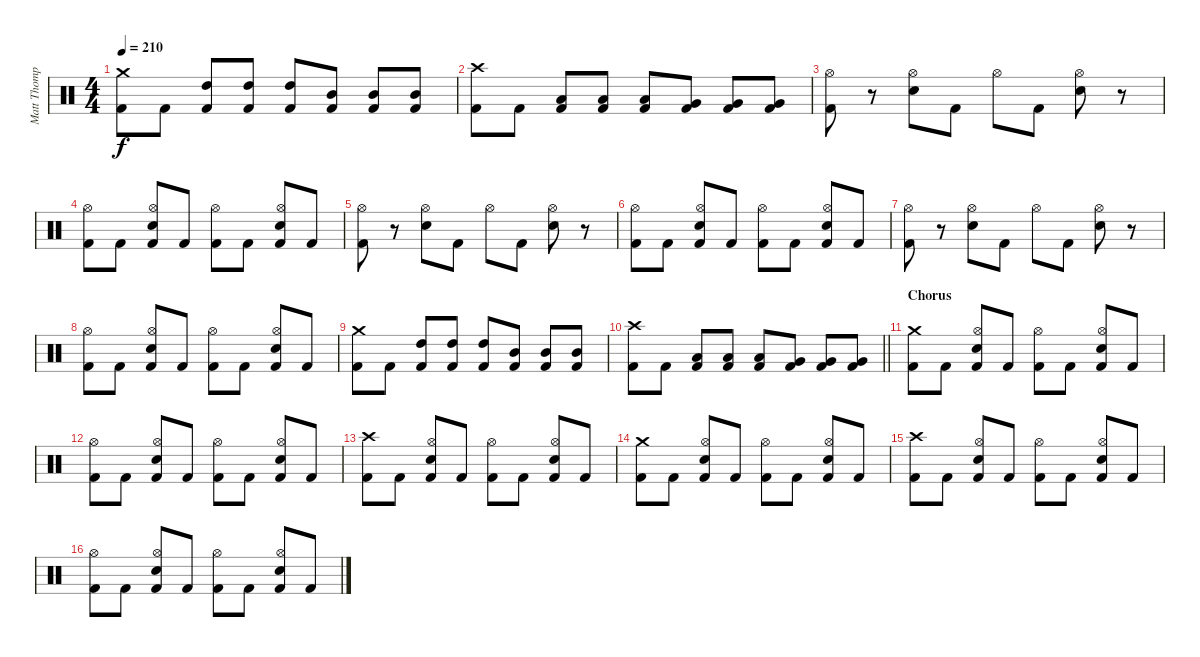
\track ("Matt Thompson" "Matt Thomp") {instrument percussion}
\staff {score}
\articulation defaults
\ts (4 4)
\tempo 210
\clef neutral
\ks c
("Crash medium (hit)" "Kick (hit) 2").8{dy f} "Kick (hit) 2".8 ("High Tom (hit)" "Kick (hit) 2").8 ("High Tom (hit)" "Kick (hit) 2").8 ("High Tom (hit)" "Kick (hit) 2").8 ("Mid Tom (hit)" "Kick (hit) 2").8 ("Mid Tom (hit)" "Kick (hit) 2").8 ("Mid Tom (hit)" "Kick (hit) 2").8 |
("Crash high (hit)" "Kick (hit) 2").8 "Kick (hit) 2".8 ("Low Tom (hit)" "Kick (hit) 2").8 ("Low Tom (hit)" "Kick (hit) 2").8 ("Low Tom (hit)" "Kick (hit) 2").8 ("Very Low Tom (hit)" "Kick (hit) 2").8 ("Very Low Tom (hit)" "Kick (hit) 2").8 ("Very Low Tom (hit)" "Kick (hit) 2").8 |
("Hi-Hat (open)" "Kick (hit) 2").8 r.8 ("Hi-Hat (open)" "Electric Snare (hit)").8 "Kick (hit) 2".8 "Hi-Hat (open)".8 "Kick (hit) 2".8 ("Hi-Hat (open)" "Electric Snare (hit)").8 r.8 |
("Hi-Hat (open)" "Kick (hit) 2").8 "Kick (hit) 2".8 ("Hi-Hat (open)" "Electric Snare (hit)" "Kick (hit) 2").8 "Kick (hit) 2".8 ("Hi-Hat (open)" "Kick (hit) 2").8 "Kick (hit) 2".8 ("Hi-Hat (open)" "Electric Snare (hit)" "Kick (hit) 2").8 "Kick (hit) 2".8 |
("Hi-Hat (open)" "Kick (hit) 2").8 r.8 ("Hi-Hat (open)" "Electric Snare (hit)").8 "Kick (hit) 2".8 "Hi-Hat (open)".8 "Kick (hit) 2".8 ("Hi-Hat (open)" "Electric Snare (hit)").8 r.8 |
("Hi-Hat (open)" "Kick (hit) 2").8 "Kick (hit) 2".8 ("Hi-Hat (open)" "Electric Snare (hit)" "Kick (hit) 2").8 "Kick (hit) 2".8 ("Hi-Hat (open)" "Kick (hit) 2").8 "Kick (hit) 2".8 ("Hi-Hat (open)" "Electric Snare (hit)" "Kick (hit) 2").8 "Kick (hit) 2".8 |
("Hi-Hat (open)" "Kick (hit) 2").8 r.8 ("Hi-Hat (open)" "Electric Snare (hit)").8 "Kick (hit) 2".8 "Hi-Hat (open)".8 "Kick (hit) 2".8 ("Hi-Hat (open)" "Electric Snare (hit)").8 r.8 |
("Hi-Hat (open)" "Kick (hit) 2").8 "Kick (hit) 2".8 ("Hi-Hat (open)" "Electric Snare (hit)" "Kick (hit) 2").8 "Kick (hit) 2".8 ("Hi-Hat (open)" "Kick (hit) 2").8 "Kick (hit) 2".8 ("Hi-Hat (open)" "Electric Snare (hit)" "Kick (hit) 2").8 "Kick (hit) 2".8 |
("Crash medium (hit)" "Kick (hit) 2").8 "Kick (hit) 2".8 ("High Tom (hit)" "Kick (hit) 2").8 ("High Tom (hit)" "Kick (hit) 2").8 ("High Tom (hit)" "Kick (hit) 2").8 ("Mid Tom (hit)" "Kick (hit) 2").8 ("Mid Tom (hit)" "Kick (hit) 2").8 ("Mid Tom (hit)" "Kick (hit) 2").8 |
\barLineRight lightlight
("Crash high (hit)" "Kick (hit) 2").8 "Kick (hit) 2".8 ("Low Tom (hit)" "Kick (hit) 2").8 ("Low Tom (hit)" "Kick (hit) 2").8 ("Low Tom (hit)" "Kick (hit) 2").8 ("Very Low Tom (hit)" "Kick (hit) 2").8 ("Very Low Tom (hit)" "Kick (hit) 2").8 ("Very Low Tom (hit)" "Kick (hit) 2").8 |
\section ("" "Chorus")
("Crash medium (hit)" "Kick (hit) 2").8 "Kick (hit) 2".8 ("Hi-Hat (open)" "Electric Snare (hit)" "Kick (hit) 2").8 "Kick (hit) 2".8 ("Hi-Hat (open)" "Kick (hit) 2").8 "Kick (hit) 2".8 ("Hi-Hat (open)" "Electric Snare (hit)" "Kick (hit) 2").8 "Kick (hit) 2".8 |
("Hi-Hat (open)" "Kick (hit) 2").8 "Kick (hit) 2".8 ("Hi-Hat (open)" "Electric Snare (hit)" "Kick (hit) 2").8 "Kick (hit) 2".8 ("Hi-Hat (open)" "Kick (hit) 2").8 "Kick (hit) 2".8 ("Hi-Hat (open)" "Electric Snare (hit)" "Kick (hit) 2").8 "Kick (hit) 2".8 |
("Crash high (hit)" "Kick (hit) 2").8 "Kick (hit) 2".8 ("Hi-Hat (open)" "Electric Snare (hit)" "Kick (hit) 2").8 "Kick (hit) 2".8 ("Hi-Hat (open)" "Kick (hit) 2").8 "Kick (hit) 2".8 ("Hi-Hat (open)" "Electric Snare (hit)" "Kick (hit) 2").8 "Kick (hit) 2".8 |
("Crash medium (hit)" "Kick (hit) 2").8 "Kick (hit) 2".8 ("Hi-Hat (open)" "Electric Snare (hit)" "Kick (hit) 2").8 "Kick (hit) 2".8 ("Hi-Hat (open)" "Kick (hit) 2").8 "Kick (hit) 2".8 ("Hi-Hat (open)" "Electric Snare (hit)" "Kick (hit) 2").8 "Kick (hit) 2".8 |
("Crash high (hit)" "Kick (hit) 2").8 "Kick (hit) 2".8 ("Hi-Hat (open)" "Electric Snare (hit)" "Kick (hit) 2").8 "Kick (hit) 2".8 ("Hi-Hat (open)" "Kick (hit) 2").8 "Kick (hit) 2".8 ("Hi-Hat (open)" "Electric Snare (hit)" "Kick (hit) 2").8 "Kick (hit) 2".8 |
("Hi-Hat (open)" "Kick (hit) 2").8 "Kick (hit) 2".8 ("Hi-Hat (open)" "Electric Snare (hit)" "Kick (hit) 2").8 "Kick (hit) 2".8 ("Hi-Hat (open)" "Kick (hit) 2").8 "Kick (hit) 2".8 ("Hi-Hat (open)" "Electric Snare (hit)" "Kick (hit) 2").8 "Kick (hit) 2".8
